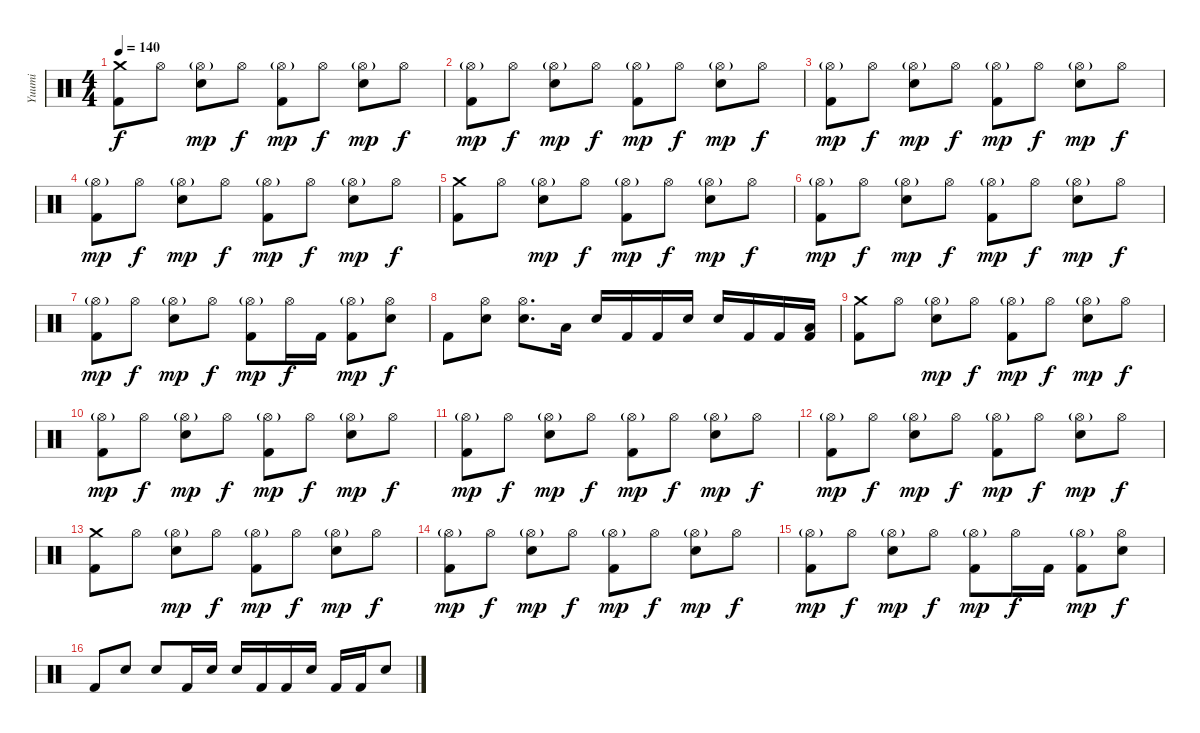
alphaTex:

\track ("Yuumi" "Yuumi") {instrument percussion}
\staff {score}
\articulation defaults
\ts (4 4)
\tempo 140
\clef neutral
\ks c
("Crash medium (hit)" "Kick (hit) 2").8{dy f} "Hi-Hat (open)".8 ("Hi-Hat (open)"{g} "Electric Snare (hit)").8{dy mp} "Hi-Hat (open)".8{dy f} ("Hi-Hat (open)"{g} "Kick (hit) 2").8{dy mp} "Hi-Hat (open)".8{dy f} ("Hi-Hat (open)"{g} "Electric Snare (hit)").8{dy mp} "Hi-Hat (open)".8{dy f} |
("Hi-Hat (open)"{g} "Kick (hit) 2").8{dy mp} "Hi-Hat (open)".8{dy f} ("Hi-Hat (open)"{g} "Electric Snare (hit)").8{dy mp} "Hi-Hat (open)".8{dy f} ("Hi-Hat (open)"{g} "Kick (hit) 2").8{dy mp} "Hi-Hat (open)".8{dy f} ("Hi-Hat (open)"{g} "Electric Snare (hit)").8{dy mp} "Hi-Hat (open)".8{dy f} |
("Hi-Hat (open)"{g} "Kick (hit) 2").8{dy mp} "Hi-Hat (open)".8{dy f} ("Hi-Hat (open)"{g} "Electric Snare (hit)").8{dy mp} "Hi-Hat (open)".8{dy f} ("Hi-Hat (open)"{g} "Kick (hit) 2").8{dy mp} "Hi-Hat (open)".8{dy f} ("Hi-Hat (open)"{g} "Electric Snare (hit)").8{dy mp} "Hi-Hat (open)".8{dy f} |
("Hi-Hat (open)"{g} "Kick (hit) 2").8{dy mp} "Hi-Hat (open)".8{dy f} ("Hi-Hat (open)"{g} "Electric Snare (hit)").8{dy mp} "Hi-Hat (open)".8{dy f} ("Hi-Hat (open)"{g} "Kick (hit) 2").8{dy mp} "Hi-Hat (open)".8{dy f} ("Hi-Hat (open)"{g} "Electric Snare (hit)").8{dy mp} "Hi-Hat (open)".8{dy f} |
("Crash medium (hit)" "Kick (hit) 2").8 "Hi-Hat (open)".8 ("Hi-Hat (open)"{g} "Electric Snare (hit)").8{dy mp} "Hi-Hat (open)".8{dy f} ("Hi-Hat (open)"{g} "Kick (hit) 2").8{dy mp} "Hi-Hat (open)".8{dy f} ("Hi-Hat (open)"{g} "Electric Snare (hit)").8{dy mp} "Hi-Hat (open)".8{dy f} |
("Hi-Hat (open)"{g} "Kick (hit) 2").8{dy mp} "Hi-Hat (open)".8{dy f} ("Hi-Hat (open)"{g} "Electric Snare (hit)").8{dy mp} "Hi-Hat (open)".8{dy f} ("Hi-Hat (open)"{g} "Kick (hit) 2").8{dy mp} "Hi-Hat (open)".8{dy f} ("Hi-Hat (open)"{g} "Electric Snare (hit)").8{dy mp} "Hi-Hat (open)".8{dy f} |
("Hi-Hat (open)"{g} "Kick (hit) 2").8{dy mp} "Hi-Hat (open)".8{dy f} ("Hi-Hat (open)"{g} "Electric Snare (hit)").8{dy mp} "Hi-Hat (open)".8{dy f} ("Hi-Hat (open)"{g} "Kick (hit) 2").8{dy mp} "Hi-Hat (open)".16{dy f} "Kick (hit) 2".16 ("Hi-Hat (open)"{g} "Kick (hit) 2").8{dy mp} ("Hi-Hat (open)" "Electric Snare (hit)").8{dy f} |
"Kick (hit) 2".8 ("Hi-Hat (open)" "Electric Snare (hit)").8 ("Hi-Hat (open)" "Electric Snare (hit)").8{d} "Low Tom (hit)".16 "Electric Snare (hit)".16 "Kick (hit) 2".16 "Kick (hit) 2".16 "Electric Snare (hit)".16 "Electric Snare (hit)".16 "Kick (hit) 2".16 "Kick (hit) 2".16 ("Low Tom (hit)" "Kick (hit) 2").16 |
("Crash medium (hit)" "Kick (hit) 2").8 "Hi-Hat (open)".8 ("Hi-Hat (open)"{g} "Electric Snare (hit)").8{dy mp} "Hi-Hat (open)".8{dy f} ("Hi-Hat (open)"{g} "Kick (hit) 2").8{dy mp} "Hi-Hat (open)".8{dy f} ("Hi-Hat (open)"{g} "Electric Snare (hit)").8{dy mp} "Hi-Hat (open)".8{dy f} |
("Hi-Hat (open)"{g} "Kick (hit) 2").8{dy mp} "Hi-Hat (open)".8{dy f} ("Hi-Hat (open)"{g} "Electric Snare (hit)").8{dy mp} "Hi-Hat (open)".8{dy f} ("Hi-Hat (open)"{g} "Kick (hit) 2").8{dy mp} "Hi-Hat (open)".8{dy f} ("Hi-Hat (open)"{g} "Electric Snare (hit)").8{dy mp} "Hi-Hat (open)".8{dy f} |
("Hi-Hat (open)"{g} "Kick (hit) 2").8{dy mp} "Hi-Hat (open)".8{dy f} ("Hi-Hat (open)"{g} "Electric Snare (hit)").8{dy mp} "Hi-Hat (open)".8{dy f} ("Hi-Hat (open)"{g} "Kick (hit) 2").8{dy mp} "Hi-Hat (open)".8{dy f} ("Hi-Hat (open)"{g} "Electric Snare (hit)").8{dy mp} "Hi-Hat (open)".8{dy f} |
("Hi-Hat (open)"{g} "Kick (hit) 2").8{dy mp} "Hi-Hat (open)".8{dy f} ("Hi-Hat (open)"{g} "Electric Snare (hit)").8{dy mp} "Hi-Hat (open)".8{dy f} ("Hi-Hat (open)"{g} "Kick (hit) 2").8{dy mp} "Hi-Hat (open)".8{dy f} ("Hi-Hat (open)"{g} "Electric Snare (hit)").8{dy mp} "Hi-Hat (open)".8{dy f} |
("Crash medium (hit)" "Kick (hit) 2").8 "Hi-Hat (open)".8 ("Hi-Hat (open)"{g} "Electric Snare (hit)").8{dy mp} "Hi-Hat (open)".8{dy f} ("Hi-Hat (open)"{g} "Kick (hit) 2").8{dy mp} "Hi-Hat (open)".8{dy f} ("Hi-Hat (open)"{g} "Electric Snare (hit)").8{dy mp} "Hi-Hat (open)".8{dy f} |
("Hi-Hat (open)"{g} "Kick (hit) 2").8{dy mp} "Hi-Hat (open)".8{dy f} ("Hi-Hat (open)"{g} "Electric Snare (hit)").8{dy mp} "Hi-Hat (open)".8{dy f} ("Hi-Hat (open)"{g} "Kick (hit) 2").8{dy mp} "Hi-Hat (open)".8{dy f} ("Hi-Hat (open)"{g} "Electric Snare (hit)").8{dy mp} "Hi-Hat (open)".8{dy f} |
("Hi-Hat (open)"{g} "Kick (hit) 2").8{dy mp} "Hi-Hat (open)".8{dy f} ("Hi-Hat (open)"{g} "Electric Snare (hit)").8{dy mp} "Hi-Hat (open)".8{dy f} ("Hi-Hat (open)"{g} "Kick (hit) 2").8{dy mp} "Hi-Hat (open)".16{dy f} "Kick (hit) 2".16 ("Hi-Hat (open)"{g} "Kick (hit) 2").8{dy mp} ("Hi-Hat (open)" "Electric Snare (hit)").8{dy f} |
"Kick (hit) 2".8 "Electric Snare (hit)".8 "Electric Snare (hit)".8 "Kick (hit) 2".16 "Electric Snare (hit)".16 "Electric Snare (hit)".16 "Kick (hit) 2".16 "Kick (hit) 2".16 "Electric Snare (hit)".16 "Kick (hit) 2".16 "Kick (hit) 2".16 "Electric Snare (hit)".8
